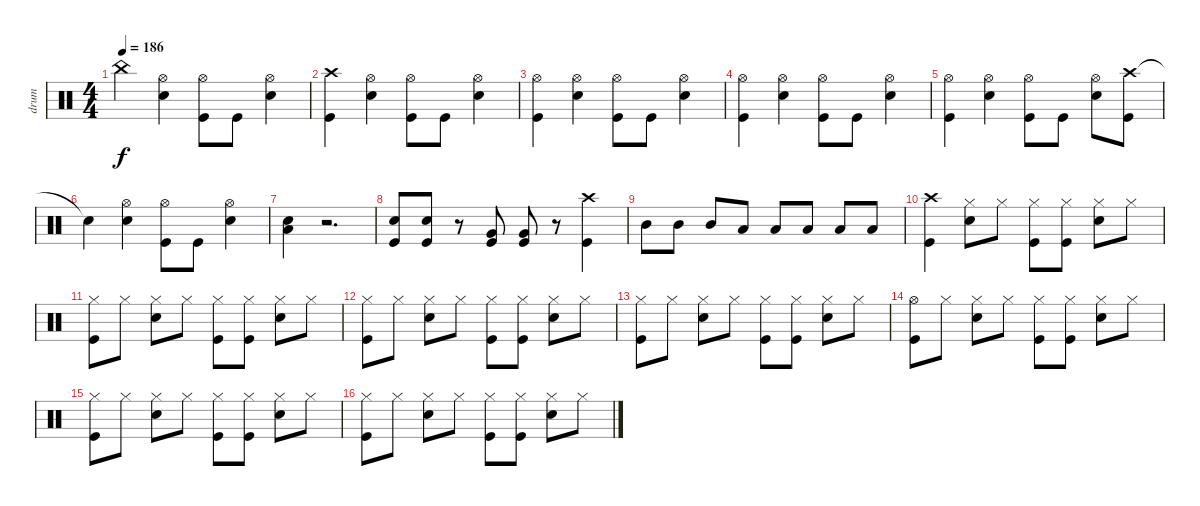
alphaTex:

\track ("drum" "drum") {instrument percussion}
\staff {score}
\articulation defaults
\ts (4 4)
\tempo 186
\clef neutral
\ks c "China (hit)"{t}.4{dy f}
("Hi-Hat (open)" "Snare (hit) 2").4 ("Hi-Hat (open)" "Kick (hit)").8 "Kick (hit)".8 ("Hi-Hat (open)" "Snare (hit) 2").4 |
("Crash high (hit)" "Kick (hit)").4 ("Hi-Hat (open)" "Snare (hit) 2").4 ("Hi-Hat (open)" "Kick (hit)").8 "Kick (hit)".8 ("Hi-Hat (open)" "Snare (hit) 2").4 |
("Hi-Hat (open)" "Kick (hit)").4 ("Hi-Hat (open)" "Snare (hit) 2").4 ("Hi-Hat (open)" "Kick (hit)").8 "Kick (hit)".8 ("Hi-Hat (open)" "Snare (hit) 2").4 |
("Hi-Hat (open)" "Kick (hit)").4 ("Hi-Hat (open)" "Snare (hit) 2").4 ("Hi-Hat (open)" "Kick (hit)").8 "Kick (hit)".8 ("Hi-Hat (open)" "Snare (hit) 2").4 |
("Hi-Hat (open)" "Kick (hit)").4 ("Hi-Hat (open)" "Snare (hit) 2").4 ("Hi-Hat (open)" "Kick (hit)").8 "Kick (hit)".8 ("Hi-Hat (open)" "Snare (hit) 2").8 ("Crash high (hit)" "Kick (hit)").8 |
"Snare (hit)"{t}.4 ("Hi-Hat (open)" "Snare (hit) 2").4 ("Hi-Hat (open)" "Kick (hit)").8 "Kick (hit)".8 ("Hi-Hat (open)" "Snare (hit) 2").4 |
("Snare (hit) 2" "Low Floor Tom (hit)").4 r.2{d} |
("Snare (hit) 2" "Kick (hit)").8 ("Snare (hit) 2" "Kick (hit)").8 r.8 ("Very Low Tom (hit)" "Kick (hit)").8 ("Very Low Tom (hit)" "Kick (hit)").8 r.8 ("Crash high (hit)" "Kick (hit)").4 |
"Mid Tom (hit)".8 "Mid Tom (hit)".8 "Mid Tom (hit)".8 "Low Tom (hit)".8 "Low Tom (hit)".8 "Low Floor Tom (hit)".8 "Low Floor Tom (hit)".8 "Low Floor Tom (hit)".8 |
("Crash high (hit)" "Kick (hit)").4 ("Hi-Hat (closed)" "Snare (hit) 2").8 "Hi-Hat (closed)".8 ("Hi-Hat (closed)" "Kick (hit)").8 ("Hi-Hat (closed)" "Kick (hit)").8 ("Hi-Hat (closed)" "Snare (hit) 2").8 "Hi-Hat (closed)".8 |
("Hi-Hat (closed)" "Kick (hit)").8 "Hi-Hat (closed)".8 ("Hi-Hat (closed)" "Snare (hit) 2").8 "Hi-Hat (closed)".8 ("Hi-Hat (closed)" "Kick (hit)").8 ("Hi-Hat (closed)" "Kick (hit)").8 ("Hi-Hat (closed)" "Snare (hit) 2").8 "Hi-Hat (closed)".8 |
("Hi-Hat (closed)" "Kick (hit)").8 "Hi-Hat (closed)".8 ("Hi-Hat (closed)" "Snare (hit) 2").8 "Hi-Hat (closed)".8 ("Hi-Hat (closed)" "Kick (hit)").8 ("Hi-Hat (closed)" "Kick (hit)").8 ("Hi-Hat (closed)" "Snare (hit) 2").8 "Hi-Hat (closed)".8 |
("Hi-Hat (closed)" "Kick (hit)").8 "Hi-Hat (closed)".8 ("Hi-Hat (closed)" "Snare (hit) 2").8 "Hi-Hat (closed)".8 ("Hi-Hat (closed)" "Kick (hit)").8 ("Hi-Hat (closed)" "Kick (hit)").8 ("Hi-Hat (closed)" "Snare (hit) 2").8 "Hi-Hat (closed)".8 |
("Hi-Hat (open)" "Kick (hit)").8 "Hi-Hat (closed)".8 ("Hi-Hat (closed)" "Snare (hit) 2").8 "Hi-Hat (closed)".8 ("Hi-Hat (closed)" "Kick (hit)").8 ("Hi-Hat (closed)" "Kick (hit)").8 ("Hi-Hat (closed)" "Snare (hit) 2").8 "Hi-Hat (closed)".8 |
("Hi-Hat (closed)" "Kick (hit)").8 "Hi-Hat (closed)".8 ("Hi-Hat (closed)" "Snare (hit) 2").8 "Hi-Hat (closed)".8 ("Hi-Hat (closed)" "Kick (hit)").8 ("Hi-Hat (closed)" "Kick (hit)").8 ("Hi-Hat (closed)" "Snare (hit) 2").8 "Hi-Hat (closed)".8 |
("Hi-Hat (closed)" "Kick (hit)").8 "Hi-Hat (closed)".8 ("Hi-Hat (closed)" "Snare (hit) 2").8 "Hi-Hat (closed)".8 ("Hi-Hat (closed)" "Kick (hit)").8 ("Hi-Hat (closed)" "Kick (hit)").8 ("Hi-Hat (closed)" "Snare (hit) 2").8 "Hi-Hat (closed)".8
